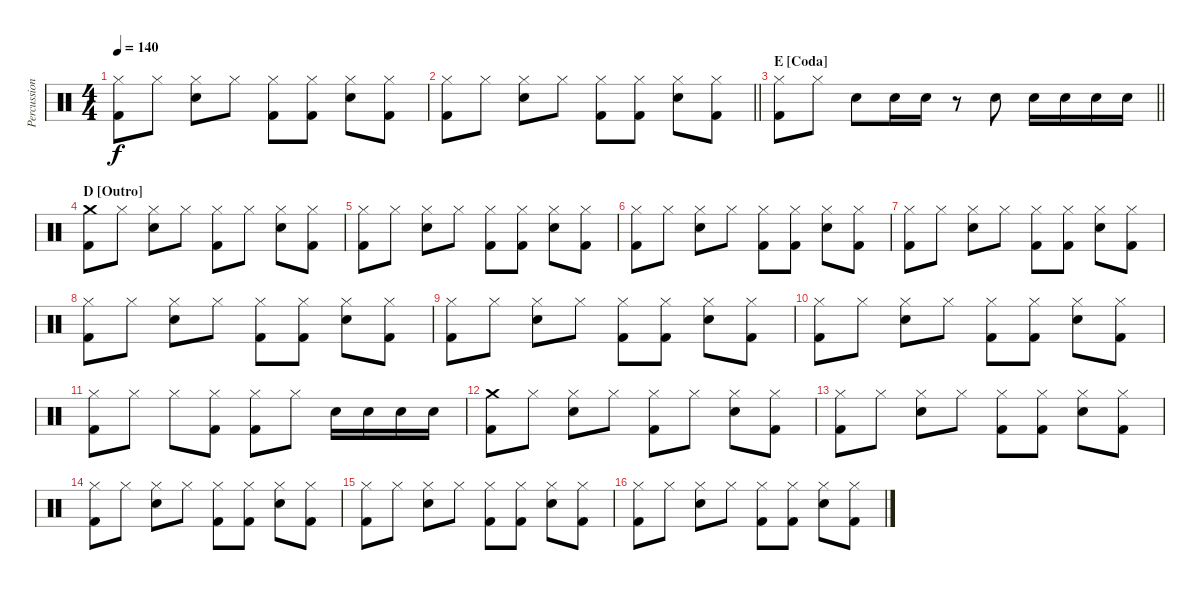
\track ("Percussion" "Percussion") {instrument percussion}
\staff {score}
\articulation defaults
\ts (4 4)
\tempo 140
\clef neutral
\ks c
("Hi-Hat (closed)" "Kick (hit) 2").8{dy f} "Hi-Hat (closed)".8 ("Hi-Hat (closed)" "Snare (hit) 2").8 "Hi-Hat (closed)".8 ("Hi-Hat (closed)" "Kick (hit) 2").8 ("Hi-Hat (closed)" "Kick (hit) 2").8 ("Hi-Hat (closed)" "Snare (hit) 2").8 ("Hi-Hat (closed)" "Kick (hit) 2").8 |
\barLineRight lightlight
("Hi-Hat (closed)" "Kick (hit) 2").8 "Hi-Hat (closed)".8 ("Hi-Hat (closed)" "Snare (hit) 2").8 "Hi-Hat (closed)".8 ("Hi-Hat (closed)" "Kick (hit) 2").8 ("Hi-Hat (closed)" "Kick (hit) 2").8 ("Hi-Hat (closed)" "Snare (hit) 2").8 ("Hi-Hat (closed)" "Kick (hit) 2").8 |
\section ("" "E [Coda]")
\barLineRight lightlight
("Hi-Hat (closed)" "Kick (hit) 2").8 "Hi-Hat (closed)".8 "Snare (hit) 2".8 "Snare (hit) 2".16 "Snare (hit) 2".16 r.8 "Snare (hit) 2".8 "Snare (hit) 2".16 "Snare (hit) 2".16 "Snare (hit) 2".16 "Snare (hit) 2".16 |
\section ("" "D [Outro]")
("Crash medium (hit)" "Kick (hit) 2").8 "Hi-Hat (closed)".8 ("Hi-Hat (closed)" "Snare (hit) 2").8 "Hi-Hat (closed)".8 ("Hi-Hat (closed)" "Kick (hit) 2").8 "Hi-Hat (closed)".8 ("Hi-Hat (closed)" "Snare (hit) 2").8 ("Hi-Hat (closed)" "Kick (hit) 2").8 |
("Hi-Hat (closed)" "Kick (hit) 2").8 "Hi-Hat (closed)".8 ("Hi-Hat (closed)" "Snare (hit) 2").8 "Hi-Hat (closed)".8 ("Hi-Hat (closed)" "Kick (hit) 2").8 ("Hi-Hat (closed)" "Kick (hit) 2").8 ("Hi-Hat (closed)" "Snare (hit) 2").8 ("Hi-Hat (closed)" "Kick (hit) 2").8 |
("Hi-Hat (closed)" "Kick (hit) 2").8 "Hi-Hat (closed)".8 ("Hi-Hat (closed)" "Snare (hit) 2").8 "Hi-Hat (closed)".8 ("Hi-Hat (closed)" "Kick (hit) 2").8 ("Hi-Hat (closed)" "Kick (hit) 2").8 ("Hi-Hat (closed)" "Snare (hit) 2").8 ("Hi-Hat (closed)" "Kick (hit) 2").8 |
("Hi-Hat (closed)" "Kick (hit) 2").8 "Hi-Hat (closed)".8 ("Hi-Hat (closed)" "Snare (hit) 2").8 "Hi-Hat (closed)".8 ("Hi-Hat (closed)" "Kick (hit) 2").8 ("Hi-Hat (closed)" "Kick (hit) 2").8 ("Hi-Hat (closed)" "Snare (hit) 2").8 ("Hi-Hat (closed)" "Kick (hit) 2").8 |
("Hi-Hat (closed)" "Kick (hit) 2").8 "Hi-Hat (closed)".8 ("Hi-Hat (closed)" "Snare (hit) 2").8 "Hi-Hat (closed)".8 ("Hi-Hat (closed)" "Kick (hit) 2").8 ("Hi-Hat (closed)" "Kick (hit) 2").8 ("Hi-Hat (closed)" "Snare (hit) 2").8 ("Hi-Hat (closed)" "Kick (hit) 2").8 |
("Hi-Hat (closed)" "Kick (hit) 2").8 "Hi-Hat (closed)".8 ("Hi-Hat (closed)" "Snare (hit) 2").8 "Hi-Hat (closed)".8 ("Hi-Hat (closed)" "Kick (hit) 2").8 ("Hi-Hat (closed)" "Kick (hit) 2").8 ("Hi-Hat (closed)" "Snare (hit) 2").8 ("Hi-Hat (closed)" "Kick (hit) 2").8 |
("Hi-Hat (closed)" "Kick (hit) 2").8 "Hi-Hat (closed)".8 ("Hi-Hat (closed)" "Snare (hit) 2").8 "Hi-Hat (closed)".8 ("Hi-Hat (closed)" "Kick (hit) 2").8 ("Hi-Hat (closed)" "Kick (hit) 2").8 ("Hi-Hat (closed)" "Snare (hit) 2").8 ("Hi-Hat (closed)" "Kick (hit) 2").8 |
("Hi-Hat (closed)" "Kick (hit) 2").8 "Hi-Hat (closed)".8 "Hi-Hat (closed)".8 ("Hi-Hat (closed)" "Kick (hit) 2").8 ("Hi-Hat (closed)" "Kick (hit) 2").8 "Hi-Hat (closed)".8 "Snare (hit) 2".16 "Snare (hit) 2".16 "Snare (hit) 2".16 "Snare (hit) 2".16 |
("Crash medium (hit)" "Kick (hit) 2").8 "Hi-Hat (closed)".8 ("Hi-Hat (closed)" "Snare (hit) 2").8 "Hi-Hat (closed)".8 ("Hi-Hat (closed)" "Kick (hit) 2").8 "Hi-Hat (closed)".8 ("Hi-Hat (closed)" "Snare (hit) 2").8 ("Hi-Hat (closed)" "Kick (hit) 2").8 |
("Hi-Hat (closed)" "Kick (hit) 2").8 "Hi-Hat (closed)".8 ("Hi-Hat (closed)" "Snare (hit) 2").8 "Hi-Hat (closed)".8 ("Hi-Hat (closed)" "Kick (hit) 2").8 ("Hi-Hat (closed)" "Kick (hit) 2").8 ("Hi-Hat (closed)" "Snare (hit) 2").8 ("Hi-Hat (closed)" "Kick (hit) 2").8 |
("Hi-Hat (closed)" "Kick (hit) 2").8 "Hi-Hat (closed)".8 ("Hi-Hat (closed)" "Snare (hit) 2").8 "Hi-Hat (closed)".8 ("Hi-Hat (closed)" "Kick (hit) 2").8 ("Hi-Hat (closed)" "Kick (hit) 2").8 ("Hi-Hat (closed)" "Snare (hit) 2").8 ("Hi-Hat (closed)" "Kick (hit) 2").8 |
("Hi-Hat (closed)" "Kick (hit) 2").8 "Hi-Hat (closed)".8 ("Hi-Hat (closed)" "Snare (hit) 2").8 "Hi-Hat (closed)".8 ("Hi-Hat (closed)" "Kick (hit) 2").8 ("Hi-Hat (closed)" "Kick (hit) 2").8 ("Hi-Hat (closed)" "Snare (hit) 2").8 ("Hi-Hat (closed)" "Kick (hit) 2").8 |
("Hi-Hat (closed)" "Kick (hit) 2").8 "Hi-Hat (closed)".8 ("Hi-Hat (closed)" "Snare (hit) 2").8 "Hi-Hat (closed)".8 ("Hi-Hat (closed)" "Kick (hit) 2").8 ("Hi-Hat (closed)" "Kick (hit) 2").8 ("Hi-Hat (closed)" "Snare (hit) 2").8 ("Hi-Hat (closed)" "Kick (hit) 2").8
